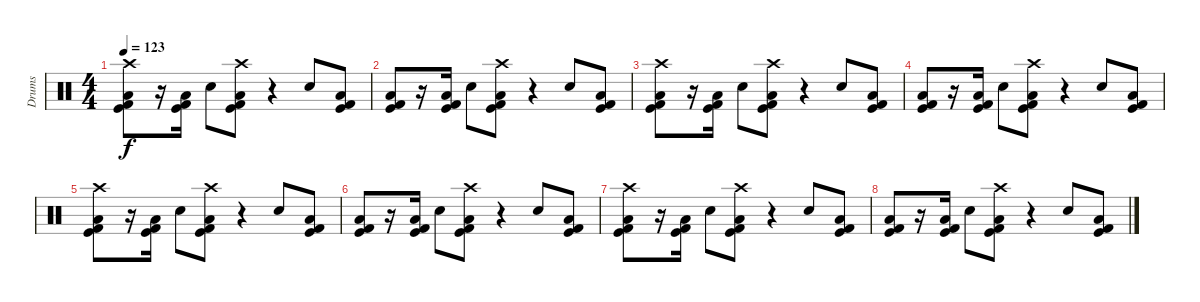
\track ("Drums" "Drums") {instrument percussion}
\staff {score}
\articulation defaults
\ts (4 4)
\tempo 123
\clef neutral
\ks c
("Crash high (hit)" "Kick (hit)" "Kick (hit) 2" "Low Floor Tom (hit)").8{dy f} r.16 ("Kick (hit)" "Kick (hit) 2" "Low Floor Tom (hit)").16 "Electric Snare (hit)".8 ("Crash high (hit)" "Kick (hit)" "Kick (hit) 2" "Low Floor Tom (hit)").8 r.4 "Electric Snare (hit)".8 ("Kick (hit)" "Kick (hit) 2" "Low Floor Tom (hit)").8 |
("Kick (hit)" "Kick (hit) 2" "Low Floor Tom (hit)").8 r.16 ("Kick (hit)" "Kick (hit) 2" "Low Floor Tom (hit)").16 "Electric Snare (hit)".8 ("Crash high (hit)" "Kick (hit)" "Kick (hit) 2" "Low Floor Tom (hit)").8 r.4 "Electric Snare (hit)".8 ("Kick (hit)" "Kick (hit) 2" "Low Floor Tom (hit)").8 |
("Crash high (hit)" "Kick (hit)" "Kick (hit) 2" "Low Floor Tom (hit)").8 r.16 ("Kick (hit)" "Kick (hit) 2" "Low Floor Tom (hit)").16 "Electric Snare (hit)".8 ("Crash high (hit)" "Kick (hit)" "Kick (hit) 2" "Low Floor Tom (hit)").8 r.4 "Electric Snare (hit)".8 ("Kick (hit)" "Kick (hit) 2" "Low Floor Tom (hit)").8 |
("Kick (hit)" "Kick (hit) 2" "Low Floor Tom (hit)").8 r.16 ("Kick (hit)" "Kick (hit) 2" "Low Floor Tom (hit)").16 "Electric Snare (hit)".8 ("Crash high (hit)" "Kick (hit)" "Kick (hit) 2" "Low Floor Tom (hit)").8 r.4 "Electric Snare (hit)".8 ("Kick (hit)" "Kick (hit) 2" "Low Floor Tom (hit)").8 |
("Crash high (hit)" "Kick (hit)" "Kick (hit) 2" "Low Floor Tom (hit)").8 r.16 ("Kick (hit)" "Kick (hit) 2" "Low Floor Tom (hit)").16 "Electric Snare (hit)".8 ("Crash high (hit)" "Kick (hit)" "Kick (hit) 2" "Low Floor Tom (hit)").8 r.4 "Electric Snare (hit)".8 ("Kick (hit)" "Kick (hit) 2" "Low Floor Tom (hit)").8 |
("Kick (hit)" "Kick (hit) 2" "Low Floor Tom (hit)").8 r.16 ("Kick (hit)" "Kick (hit) 2" "Low Floor Tom (hit)").16 "Electric Snare (hit)".8 ("Crash high (hit)" "Kick (hit)" "Kick (hit) 2" "Low Floor Tom (hit)").8 r.4 "Electric Snare (hit)".8 ("Kick (hit)" "Kick (hit) 2" "Low Floor Tom (hit)").8 |
("Crash high (hit)" "Kick (hit)" "Kick (hit) 2" "Low Floor Tom (hit)").8 r.16 ("Kick (hit)" "Kick (hit) 2" "Low Floor Tom (hit)").16 "Electric Snare (hit)".8 ("Crash high (hit)" "Kick (hit)" "Kick (hit) 2" "Low Floor Tom (hit)").8 r.4 "Electric Snare (hit)".8 ("Kick (hit)" "Kick (hit) 2" "Low Floor Tom (hit)").8 |
("Kick (hit)" "Kick (hit) 2" "Low Floor Tom (hit)").8 r.16 ("Kick (hit)" "Kick (hit) 2" "Low Floor Tom (hit)").16 "Electric Snare (hit)".8 ("Crash high (hit)" "Kick (hit)" "Kick (hit) 2" "Low Floor Tom (hit)").8 r.4 "Electric Snare (hit)".8 ("Kick (hit)" "Kick (hit) 2" "Low Floor Tom (hit)").8
